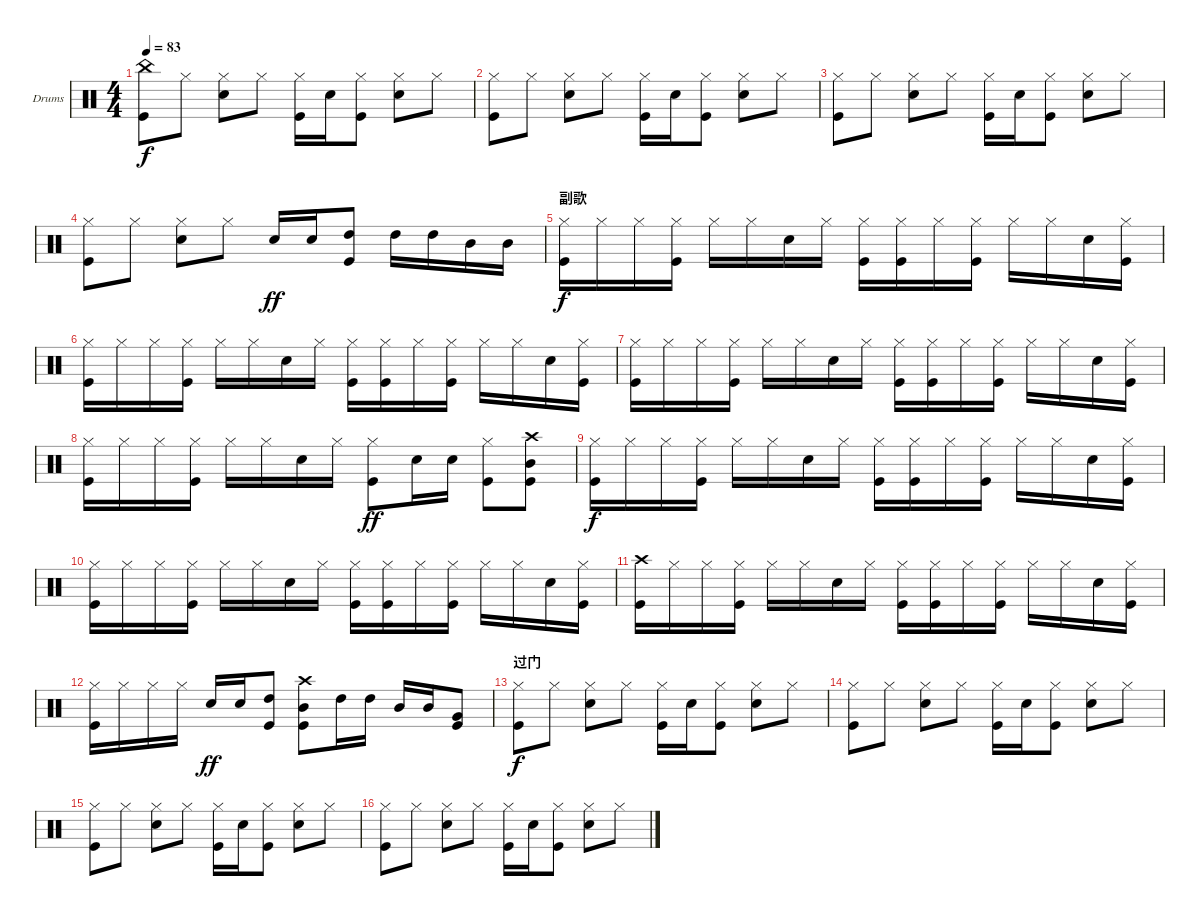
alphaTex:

\bracketExtendMode groupsimilarinstruments
\firstSystemTrackNameOrientation horizontal
\otherSystemsTrackNameOrientation horizontal
\track ("Drumkit" "Drums") {solo instrument percussion}
\staff {score}
\articulation defaults
\ts (4 4)
\tempo 83
\clef neutral
\scale
0.333333
\ks c
("Kick (hit)" "China (hit)").8{dy f} "Hi-Hat (closed)".8 ("Snare (hit) 2" "Hi-Hat (closed)").8 "Hi-Hat (closed)".8 ("Kick (hit)" "Hi-Hat (closed)").16 "Snare (hit) 2".16 ("Kick (hit)" "Hi-Hat (closed)").8 ("Snare (hit) 2" "Hi-Hat (closed)").8 "Hi-Hat (closed)".8 |
\scale
0.333333 ("Kick (hit)" "Hi-Hat (closed)").8 "Hi-Hat (closed)".8 ("Snare (hit) 2" "Hi-Hat (closed)").8 "Hi-Hat (closed)".8 ("Kick (hit)" "Hi-Hat (closed)").16 "Snare (hit) 2".16 ("Kick (hit)" "Hi-Hat (closed)").8 ("Snare (hit) 2" "Hi-Hat (closed)").8 "Hi-Hat (closed)".8 |
\scale
0.333333 ("Kick (hit)" "Hi-Hat (closed)").8 "Hi-Hat (closed)".8 ("Snare (hit) 2" "Hi-Hat (closed)").8 "Hi-Hat (closed)".8 ("Kick (hit)" "Hi-Hat (closed)").16 "Snare (hit) 2".16 ("Kick (hit)" "Hi-Hat (closed)").8 ("Snare (hit) 2" "Hi-Hat (closed)").8 "Hi-Hat (closed)".8 |
\scale
0.333333 ("Kick (hit)" "Hi-Hat (closed)").8 "Hi-Hat (closed)".8 ("Snare (hit) 2" "Hi-Hat (closed)").8 "Hi-Hat (closed)".8 "Snare (hit) 2".16{dy ff} "Snare (hit) 2".16 ("High Tom (hit)" "Kick (hit)").8 "High Tom (hit)".16 "High Tom (hit)".16 "Mid Tom (hit)".16 "Mid Tom (hit)".16 |
\section ("" "副歌")
\scale
0.333333 ("Kick (hit)" "Hi-Hat (closed)").16{dy f} "Hi-Hat (closed)".16 "Hi-Hat (closed)".16 ("Hi-Hat (closed)" "Kick (hit)").16 "Hi-Hat (closed)".16 "Hi-Hat (closed)".16 "Snare (hit) 2".16 "Hi-Hat (closed)".16 ("Kick (hit)" "Hi-Hat (closed)").16 ("Hi-Hat (closed)" "Kick (hit)").16 "Hi-Hat (closed)".16 ("Hi-Hat (closed)" "Kick (hit)").16 "Hi-Hat (closed)".16 "Hi-Hat (closed)".16 "Snare (hit) 2".16 ("Hi-Hat (closed)" "Kick (hit)").16 |
\scale
0.333333 ("Kick (hit)" "Hi-Hat (closed)").16 "Hi-Hat (closed)".16 "Hi-Hat (closed)".16 ("Hi-Hat (closed)" "Kick (hit)").16 "Hi-Hat (closed)".16 "Hi-Hat (closed)".16 "Snare (hit) 2".16 "Hi-Hat (closed)".16 ("Kick (hit)" "Hi-Hat (closed)").16 ("Hi-Hat (closed)" "Kick (hit)").16 "Hi-Hat (closed)".16 ("Hi-Hat (closed)" "Kick (hit)").16 "Hi-Hat (closed)".16 "Hi-Hat (closed)".16 "Snare (hit) 2".16 ("Hi-Hat (closed)" "Kick (hit)").16 |
\scale
0.333333 ("Kick (hit)" "Hi-Hat (closed)").16 "Hi-Hat (closed)".16 "Hi-Hat (closed)".16 ("Hi-Hat (closed)" "Kick (hit)").16 "Hi-Hat (closed)".16 "Hi-Hat (closed)".16 "Snare (hit) 2".16 "Hi-Hat (closed)".16 ("Kick (hit)" "Hi-Hat (closed)").16 ("Hi-Hat (closed)" "Kick (hit)").16 "Hi-Hat (closed)".16 ("Hi-Hat (closed)" "Kick (hit)").16 "Hi-Hat (closed)".16 "Hi-Hat (closed)".16 "Snare (hit) 2".16 ("Hi-Hat (closed)" "Kick (hit)").16 |
\scale
0.333333 ("Kick (hit)" "Hi-Hat (closed)").16 "Hi-Hat (closed)".16 "Hi-Hat (closed)".16 ("Hi-Hat (closed)" "Kick (hit)").16 "Hi-Hat (closed)".16 "Hi-Hat (closed)".16 "Snare (hit) 2".16 "Hi-Hat (closed)".16 ("Kick (hit)" "Hi-Hat (closed)").8{dy ff} "Snare (hit) 2".16 "Snare (hit) 2".16 ("Kick (hit)" "Hi-Hat (closed)").8 ("Mid Tom (hit)" "Kick (hit)" "Crash high (hit)").8 |
\scale
0.333333 ("Kick (hit)" "Hi-Hat (closed)").16{dy f} "Hi-Hat (closed)".16 "Hi-Hat (closed)".16 ("Hi-Hat (closed)" "Kick (hit)").16 "Hi-Hat (closed)".16 "Hi-Hat (closed)".16 "Snare (hit) 2".16 "Hi-Hat (closed)".16 ("Kick (hit)" "Hi-Hat (closed)").16 ("Hi-Hat (closed)" "Kick (hit)").16 "Hi-Hat (closed)".16 ("Hi-Hat (closed)" "Kick (hit)").16 "Hi-Hat (closed)".16 "Hi-Hat (closed)".16 "Snare (hit) 2".16 ("Hi-Hat (closed)" "Kick (hit)").16 |
\scale
0.333333 ("Kick (hit)" "Hi-Hat (closed)").16 "Hi-Hat (closed)".16 "Hi-Hat (closed)".16 ("Hi-Hat (closed)" "Kick (hit)").16 "Hi-Hat (closed)".16 "Hi-Hat (closed)".16 "Snare (hit) 2".16 "Hi-Hat (closed)".16 ("Kick (hit)" "Hi-Hat (closed)").16 ("Hi-Hat (closed)" "Kick (hit)").16 "Hi-Hat (closed)".16 ("Hi-Hat (closed)" "Kick (hit)").16 "Hi-Hat (closed)".16 "Hi-Hat (closed)".16 "Snare (hit) 2".16 ("Hi-Hat (closed)" "Kick (hit)").16 |
\scale
0.333333 ("Kick (hit)" "Crash high (hit)").16 "Hi-Hat (closed)".16 "Hi-Hat (closed)".16 ("Hi-Hat (closed)" "Kick (hit)").16 "Hi-Hat (closed)".16 "Hi-Hat (closed)".16 "Snare (hit) 2".16 "Hi-Hat (closed)".16 ("Kick (hit)" "Hi-Hat (closed)").16 ("Hi-Hat (closed)" "Kick (hit)").16 "Hi-Hat (closed)".16 ("Hi-Hat (closed)" "Kick (hit)").16 "Hi-Hat (closed)".16 "Hi-Hat (closed)".16 "Snare (hit) 2".16 ("Hi-Hat (closed)" "Kick (hit)").16 |
\scale
0.333333 ("Kick (hit)" "Hi-Hat (closed)").16 "Hi-Hat (closed)".16 "Hi-Hat (closed)".16 "Hi-Hat (closed)".16 "Snare (hit) 2".16{dy ff} "Snare (hit) 2".16 ("Kick (hit)" "High Tom (hit)").8 ("Mid Tom (hit)" "Kick (hit)" "Crash high (hit)").8 "High Tom (hit)".16 "High Tom (hit)".16 "Mid Tom (hit)".16 "Mid Tom (hit)".16 ("Very Low Tom (hit)" "Kick (hit)").8 |
\section ("" "过门")
\scale
0.333333 ("Kick (hit)" "Hi-Hat (closed)").8{dy f} "Hi-Hat (closed)".8 ("Snare (hit) 2" "Hi-Hat (closed)").8 "Hi-Hat (closed)".8 ("Kick (hit)" "Hi-Hat (closed)").16 "Snare (hit) 2".16 ("Kick (hit)" "Hi-Hat (closed)").8 ("Snare (hit) 2" "Hi-Hat (closed)").8 "Hi-Hat (closed)".8 |
\scale
0.333333 ("Kick (hit)" "Hi-Hat (closed)").8 "Hi-Hat (closed)".8 ("Snare (hit) 2" "Hi-Hat (closed)").8 "Hi-Hat (closed)".8 ("Kick (hit)" "Hi-Hat (closed)").16 "Snare (hit) 2".16 ("Kick (hit)" "Hi-Hat (closed)").8 ("Snare (hit) 2" "Hi-Hat (closed)").8 "Hi-Hat (closed)".8 |
\scale
0.333333 ("Kick (hit)" "Hi-Hat (closed)").8 "Hi-Hat (closed)".8 ("Snare (hit) 2" "Hi-Hat (closed)").8 "Hi-Hat (closed)".8 ("Kick (hit)" "Hi-Hat (closed)").16 "Snare (hit) 2".16 ("Kick (hit)" "Hi-Hat (closed)").8 ("Snare (hit) 2" "Hi-Hat (closed)").8 "Hi-Hat (closed)".8 |
\scale
0.333333 ("Kick (hit)" "Hi-Hat (closed)").8 "Hi-Hat (closed)".8 ("Snare (hit) 2" "Hi-Hat (closed)").8 "Hi-Hat (closed)".8 ("Kick (hit)" "Hi-Hat (closed)").16 "Snare (hit) 2".16 ("Kick (hit)" "Hi-Hat (closed)").8 ("Snare (hit) 2" "Hi-Hat (closed)").8 "Hi-Hat (closed)".8
